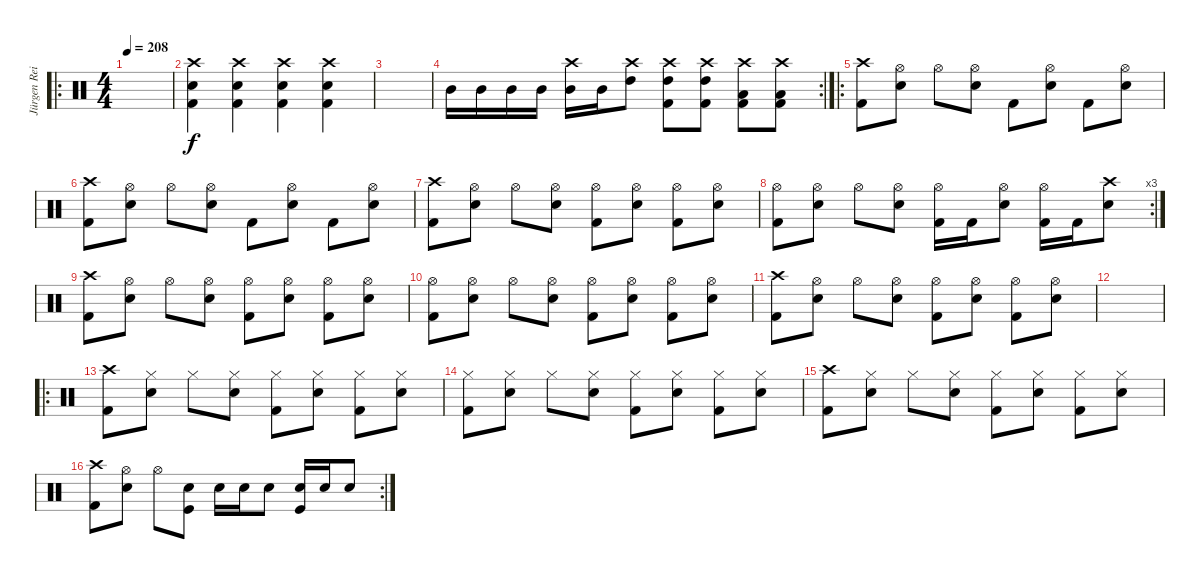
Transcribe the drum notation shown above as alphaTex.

\track ("Jürgen Reil" "Jürgen Rei") {instrument percussion}
\staff {score}
\articulation defaults
\ro
\ts (4 4)
\tempo 208
\clef neutral
\ks c
|
("Crash high (hit)" "Electric Snare (hit)" "Kick (hit) 2").4 ("Crash high (hit)" "Electric Snare (hit)" "Kick (hit) 2").4 ("Crash high (hit)" "Electric Snare (hit)" "Kick (hit) 2").4 ("Crash high (hit)" "Electric Snare (hit)" "Kick (hit) 2").4 |
|
\rc 2 "Mid Tom (hit)".16 "Mid Tom (hit)".16 "Mid Tom (hit)".16 "Mid Tom (hit)".16
("Crash high (hit)" "Mid Tom (hit)").16 "Mid Tom (hit)".16 ("Crash high (hit)" "High Tom (hit)").8 ("Crash high (hit)" "High Tom (hit)" "Kick (hit) 2").8 ("Crash high (hit)" "High Tom (hit)" "Kick (hit) 2").8 ("Crash high (hit)" "Low Floor Tom (hit)" "Kick (hit) 2").8 ("Crash high (hit)" "Low Floor Tom (hit)" "Kick (hit) 2").8 |
\ro
("Crash high (hit)" "Kick (hit) 2").8 ("Hi-Hat (open)" "Electric Snare (hit)").8 "Hi-Hat (open)".8 ("Hi-Hat (open)" "Electric Snare (hit)").8 "Kick (hit) 2".8 ("Hi-Hat (open)" "Electric Snare (hit)").8 "Kick (hit) 2".8 ("Hi-Hat (open)" "Electric Snare (hit)").8 |
("Crash high (hit)" "Kick (hit) 2").8 ("Hi-Hat (open)" "Electric Snare (hit)").8 "Hi-Hat (open)".8 ("Hi-Hat (open)" "Electric Snare (hit)").8 "Kick (hit) 2".8 ("Hi-Hat (open)" "Electric Snare (hit)").8 "Kick (hit) 2".8 ("Hi-Hat (open)" "Electric Snare (hit)").8 |
("Crash high (hit)" "Kick (hit) 2").8 ("Hi-Hat (open)" "Electric Snare (hit)").8 "Hi-Hat (open)".8 ("Hi-Hat (open)" "Electric Snare (hit)").8 ("Hi-Hat (open)" "Kick (hit) 2").8 ("Hi-Hat (open)" "Electric Snare (hit)").8 ("Hi-Hat (open)" "Kick (hit) 2").8 ("Hi-Hat (open)" "Electric Snare (hit)").8 |
\rc 3
("Hi-Hat (open)" "Kick (hit) 2").8 ("Hi-Hat (open)" "Electric Snare (hit)").8 "Hi-Hat (open)".8 ("Hi-Hat (open)" "Electric Snare (hit)").8 ("Hi-Hat (open)" "Kick (hit) 2").16 "Kick (hit) 2".16 ("Hi-Hat (open)" "Electric Snare (hit)").8 ("Hi-Hat (open)" "Kick (hit) 2").16 "Kick (hit) 2".16 ("Crash high (hit)" "Electric Snare (hit)").8 |
("Crash high (hit)" "Kick (hit) 2").8 ("Hi-Hat (open)" "Electric Snare (hit)").8 "Hi-Hat (open)".8 ("Hi-Hat (open)" "Electric Snare (hit)").8 ("Hi-Hat (open)" "Kick (hit) 2").8 ("Hi-Hat (open)" "Electric Snare (hit)").8 ("Hi-Hat (open)" "Kick (hit) 2").8 ("Hi-Hat (open)" "Electric Snare (hit)").8 |
("Hi-Hat (open)" "Kick (hit) 2").8 ("Hi-Hat (open)" "Electric Snare (hit)").8 "Hi-Hat (open)".8 ("Hi-Hat (open)" "Electric Snare (hit)").8 ("Hi-Hat (open)" "Kick (hit) 2").8 ("Hi-Hat (open)" "Electric Snare (hit)").8 ("Hi-Hat (open)" "Kick (hit) 2").8 ("Hi-Hat (open)" "Electric Snare (hit)").8 |
("Crash high (hit)" "Kick (hit) 2").8 ("Hi-Hat (open)" "Electric Snare (hit)").8 "Hi-Hat (open)".8 ("Hi-Hat (open)" "Electric Snare (hit)").8 ("Hi-Hat (open)" "Kick (hit) 2").8 ("Hi-Hat (open)" "Electric Snare (hit)").8 ("Hi-Hat (open)" "Kick (hit) 2").8 ("Hi-Hat (open)" "Electric Snare (hit)").8 |
|
\ro
("Crash high (hit)" "Kick (hit) 2").8 ("Hi-Hat (closed)" "Electric Snare (hit)").8 "Hi-Hat (closed)".8 ("Hi-Hat (closed)" "Electric Snare (hit)").8 ("Hi-Hat (closed)" "Kick (hit) 2").8 ("Hi-Hat (closed)" "Electric Snare (hit)").8 ("Hi-Hat (closed)" "Kick (hit) 2").8 ("Hi-Hat (closed)" "Electric Snare (hit)").8 |
("Hi-Hat (closed)" "Kick (hit) 2").8 ("Hi-Hat (closed)" "Electric Snare (hit)").8 "Hi-Hat (closed)".8 ("Hi-Hat (closed)" "Electric Snare (hit)").8 ("Hi-Hat (closed)" "Kick (hit) 2").8 ("Hi-Hat (closed)" "Electric Snare (hit)").8 ("Hi-Hat (closed)" "Kick (hit) 2").8 ("Hi-Hat (closed)" "Electric Snare (hit)").8 |
("Crash high (hit)" "Kick (hit) 2").8 ("Hi-Hat (closed)" "Electric Snare (hit)").8 "Hi-Hat (closed)".8 ("Hi-Hat (closed)" "Electric Snare (hit)").8 ("Hi-Hat (closed)" "Kick (hit) 2").8 ("Hi-Hat (closed)" "Electric Snare (hit)").8 ("Hi-Hat (closed)" "Kick (hit) 2").8 ("Hi-Hat (closed)" "Electric Snare (hit)").8 |
\rc 2
("Crash high (hit)" "Kick (hit) 2").8 ("Hi-Hat (open)" "Electric Snare (hit)").8 "Hi-Hat (open)".8 ("Kick (hit)" "Electric Snare (hit)").8 "Electric Snare (hit)".16 "Electric Snare (hit)".16 "Electric Snare (hit)".8 ("Kick (hit)" "Electric Snare (hit)").16 "Electric Snare (hit)".16 "Electric Snare (hit)".8
